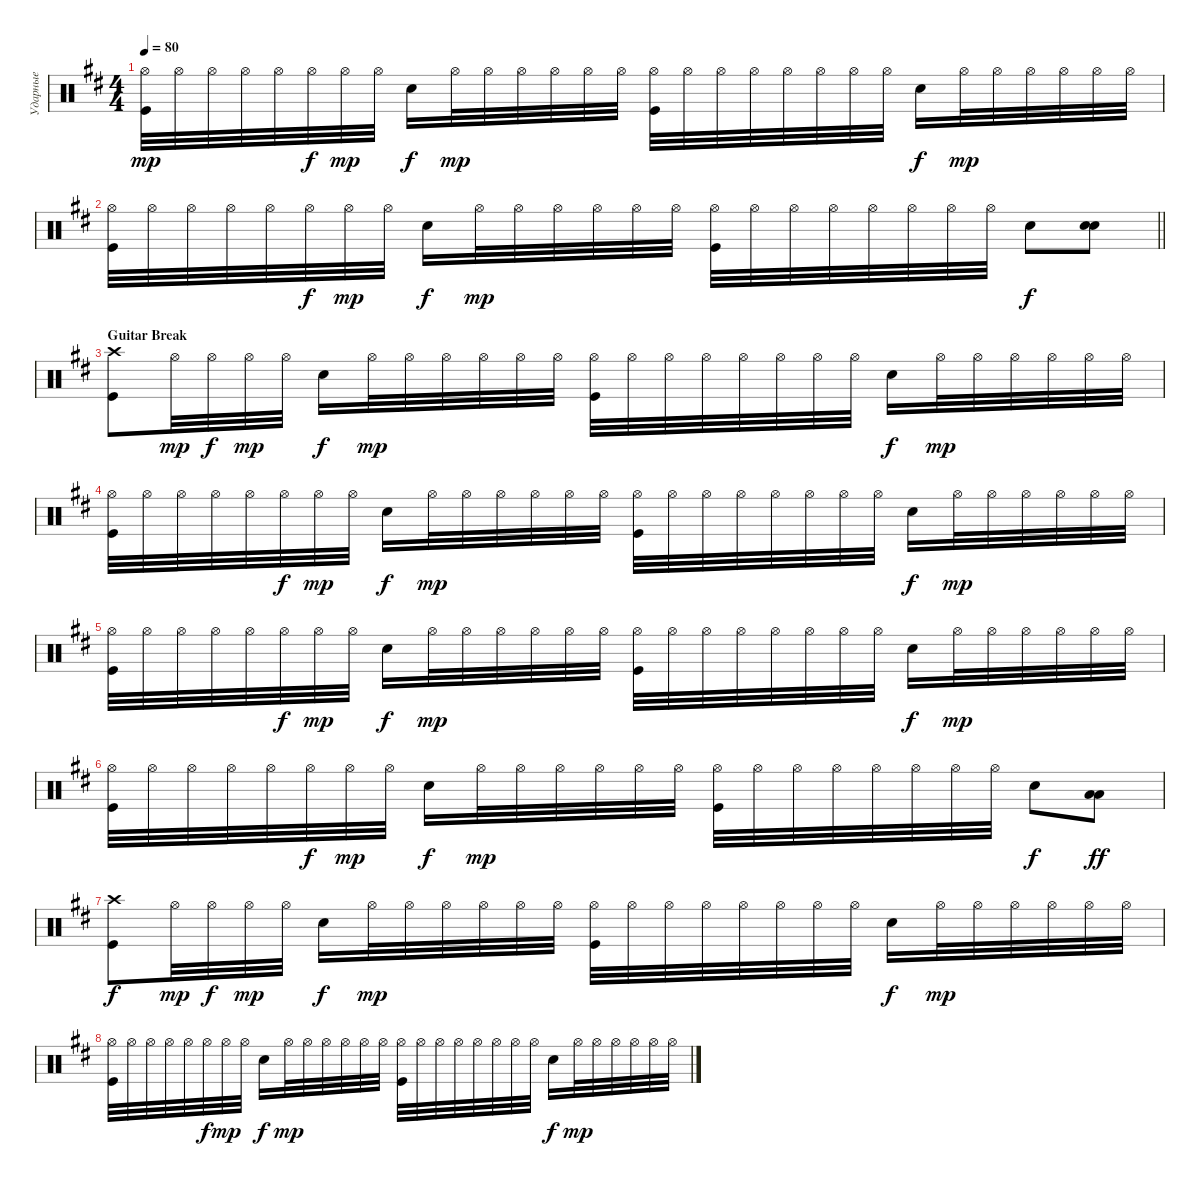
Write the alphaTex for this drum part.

\track ("Ударные" "Ударные") {instrument percussion}
\staff {score}
\articulation defaults
\ts (4 4)
\tempo 80
\clef neutral
\ks bminor
("Kick (hit)" "Hi-Hat (open)").32{dy mp} "Hi-Hat (open)".32 "Hi-Hat (open)".32 "Hi-Hat (open)".32 "Hi-Hat (open)".32 "Hi-Hat (open)".32{dy f} "Hi-Hat (open)".32{dy mp} "Hi-Hat (open)".32 "Snare (hit) 2".16{dy f} "Hi-Hat (open)".32{dy mp} "Hi-Hat (open)".32 "Hi-Hat (open)".32 "Hi-Hat (open)".32 "Hi-Hat (open)".32 "Hi-Hat (open)".32 ("Kick (hit)" "Hi-Hat (open)").32 "Hi-Hat (open)".32 "Hi-Hat (open)".32 "Hi-Hat (open)".32 "Hi-Hat (open)".32 "Hi-Hat (open)".32 "Hi-Hat (open)".32 "Hi-Hat (open)".32 "Snare (hit) 2".16{dy f} "Hi-Hat (open)".32{dy mp} "Hi-Hat (open)".32 "Hi-Hat (open)".32 "Hi-Hat (open)".32 "Hi-Hat (open)".32 "Hi-Hat (open)".32 |
\barLineRight lightlight
("Kick (hit)" "Hi-Hat (open)").32 "Hi-Hat (open)".32 "Hi-Hat (open)".32 "Hi-Hat (open)".32 "Hi-Hat (open)".32 "Hi-Hat (open)".32{dy f} "Hi-Hat (open)".32{dy mp} "Hi-Hat (open)".32 "Snare (hit) 2".16{dy f} "Hi-Hat (open)".32{dy mp} "Hi-Hat (open)".32 "Hi-Hat (open)".32 "Hi-Hat (open)".32 "Hi-Hat (open)".32 "Hi-Hat (open)".32 ("Kick (hit)" "Hi-Hat (open)").32 "Hi-Hat (open)".32 "Hi-Hat (open)".32 "Hi-Hat (open)".32 "Hi-Hat (open)".32 "Hi-Hat (open)".32 "Hi-Hat (open)".32 "Hi-Hat (open)".32 "Snare (hit) 2".8{dy f} ("Snare (hit) 2" "Snare (hit) 2").8{bd 120} |
\section ("" "Guitar Break")
("Kick (hit)" "Crash high (hit)").8 "Hi-Hat (open)".32{dy mp} "Hi-Hat (open)".32{dy f} "Hi-Hat (open)".32{dy mp} "Hi-Hat (open)".32 "Snare (hit) 2".16{dy f} "Hi-Hat (open)".32{dy mp} "Hi-Hat (open)".32 "Hi-Hat (open)".32 "Hi-Hat (open)".32 "Hi-Hat (open)".32 "Hi-Hat (open)".32 ("Kick (hit)" "Hi-Hat (open)").32 "Hi-Hat (open)".32 "Hi-Hat (open)".32 "Hi-Hat (open)".32 "Hi-Hat (open)".32 "Hi-Hat (open)".32 "Hi-Hat (open)".32 "Hi-Hat (open)".32 "Snare (hit) 2".16{dy f} "Hi-Hat (open)".32{dy mp} "Hi-Hat (open)".32 "Hi-Hat (open)".32 "Hi-Hat (open)".32 "Hi-Hat (open)".32 "Hi-Hat (open)".32 |
("Kick (hit)" "Hi-Hat (open)").32 "Hi-Hat (open)".32 "Hi-Hat (open)".32 "Hi-Hat (open)".32 "Hi-Hat (open)".32 "Hi-Hat (open)".32{dy f} "Hi-Hat (open)".32{dy mp} "Hi-Hat (open)".32 "Snare (hit) 2".16{dy f} "Hi-Hat (open)".32{dy mp} "Hi-Hat (open)".32 "Hi-Hat (open)".32 "Hi-Hat (open)".32 "Hi-Hat (open)".32 "Hi-Hat (open)".32 ("Kick (hit)" "Hi-Hat (open)").32 "Hi-Hat (open)".32 "Hi-Hat (open)".32 "Hi-Hat (open)".32 "Hi-Hat (open)".32 "Hi-Hat (open)".32 "Hi-Hat (open)".32 "Hi-Hat (open)".32 "Snare (hit) 2".16{dy f} "Hi-Hat (open)".32{dy mp} "Hi-Hat (open)".32 "Hi-Hat (open)".32 "Hi-Hat (open)".32 "Hi-Hat (open)".32 "Hi-Hat (open)".32 |
("Kick (hit)" "Hi-Hat (open)").32 "Hi-Hat (open)".32 "Hi-Hat (open)".32 "Hi-Hat (open)".32 "Hi-Hat (open)".32 "Hi-Hat (open)".32{dy f} "Hi-Hat (open)".32{dy mp} "Hi-Hat (open)".32 "Snare (hit) 2".16{dy f} "Hi-Hat (open)".32{dy mp} "Hi-Hat (open)".32 "Hi-Hat (open)".32 "Hi-Hat (open)".32 "Hi-Hat (open)".32 "Hi-Hat (open)".32 ("Kick (hit)" "Hi-Hat (open)").32 "Hi-Hat (open)".32 "Hi-Hat (open)".32 "Hi-Hat (open)".32 "Hi-Hat (open)".32 "Hi-Hat (open)".32 "Hi-Hat (open)".32 "Hi-Hat (open)".32 "Snare (hit) 2".16{dy f} "Hi-Hat (open)".32{dy mp} "Hi-Hat (open)".32 "Hi-Hat (open)".32 "Hi-Hat (open)".32 "Hi-Hat (open)".32 "Hi-Hat (open)".32 |
("Kick (hit)" "Hi-Hat (open)").32 "Hi-Hat (open)".32 "Hi-Hat (open)".32 "Hi-Hat (open)".32 "Hi-Hat (open)".32 "Hi-Hat (open)".32{dy f} "Hi-Hat (open)".32{dy mp} "Hi-Hat (open)".32 "Snare (hit) 2".16{dy f} "Hi-Hat (open)".32{dy mp} "Hi-Hat (open)".32 "Hi-Hat (open)".32 "Hi-Hat (open)".32 "Hi-Hat (open)".32 "Hi-Hat (open)".32 ("Kick (hit)" "Hi-Hat (open)").32 "Hi-Hat (open)".32 "Hi-Hat (open)".32 "Hi-Hat (open)".32 "Hi-Hat (open)".32 "Hi-Hat (open)".32 "Hi-Hat (open)".32 "Hi-Hat (open)".32 "Snare (hit) 2".8{dy f} ("Low Tom (hit)" "Low Tom (hit)").8{bd 480 dy ff} |
("Kick (hit)" "Crash high (hit)").8{dy f} "Hi-Hat (open)".32{dy mp} "Hi-Hat (open)".32{dy f} "Hi-Hat (open)".32{dy mp} "Hi-Hat (open)".32 "Snare (hit) 2".16{dy f} "Hi-Hat (open)".32{dy mp} "Hi-Hat (open)".32 "Hi-Hat (open)".32 "Hi-Hat (open)".32 "Hi-Hat (open)".32 "Hi-Hat (open)".32 ("Kick (hit)" "Hi-Hat (open)").32 "Hi-Hat (open)".32 "Hi-Hat (open)".32 "Hi-Hat (open)".32 "Hi-Hat (open)".32 "Hi-Hat (open)".32 "Hi-Hat (open)".32 "Hi-Hat (open)".32 "Snare (hit) 2".16{dy f} "Hi-Hat (open)".32{dy mp} "Hi-Hat (open)".32 "Hi-Hat (open)".32 "Hi-Hat (open)".32 "Hi-Hat (open)".32 "Hi-Hat (open)".32 |
("Kick (hit)" "Hi-Hat (open)").32 "Hi-Hat (open)".32 "Hi-Hat (open)".32 "Hi-Hat (open)".32 "Hi-Hat (open)".32 "Hi-Hat (open)".32{dy f} "Hi-Hat (open)".32{dy mp} "Hi-Hat (open)".32 "Snare (hit) 2".16{dy f} "Hi-Hat (open)".32{dy mp} "Hi-Hat (open)".32 "Hi-Hat (open)".32 "Hi-Hat (open)".32 "Hi-Hat (open)".32 "Hi-Hat (open)".32 ("Kick (hit)" "Hi-Hat (open)").32 "Hi-Hat (open)".32 "Hi-Hat (open)".32 "Hi-Hat (open)".32 "Hi-Hat (open)".32 "Hi-Hat (open)".32 "Hi-Hat (open)".32 "Hi-Hat (open)".32 "Snare (hit) 2".16{dy f} "Hi-Hat (open)".32{dy mp} "Hi-Hat (open)".32 "Hi-Hat (open)".32 "Hi-Hat (open)".32 "Hi-Hat (open)".32 "Hi-Hat (open)".32
